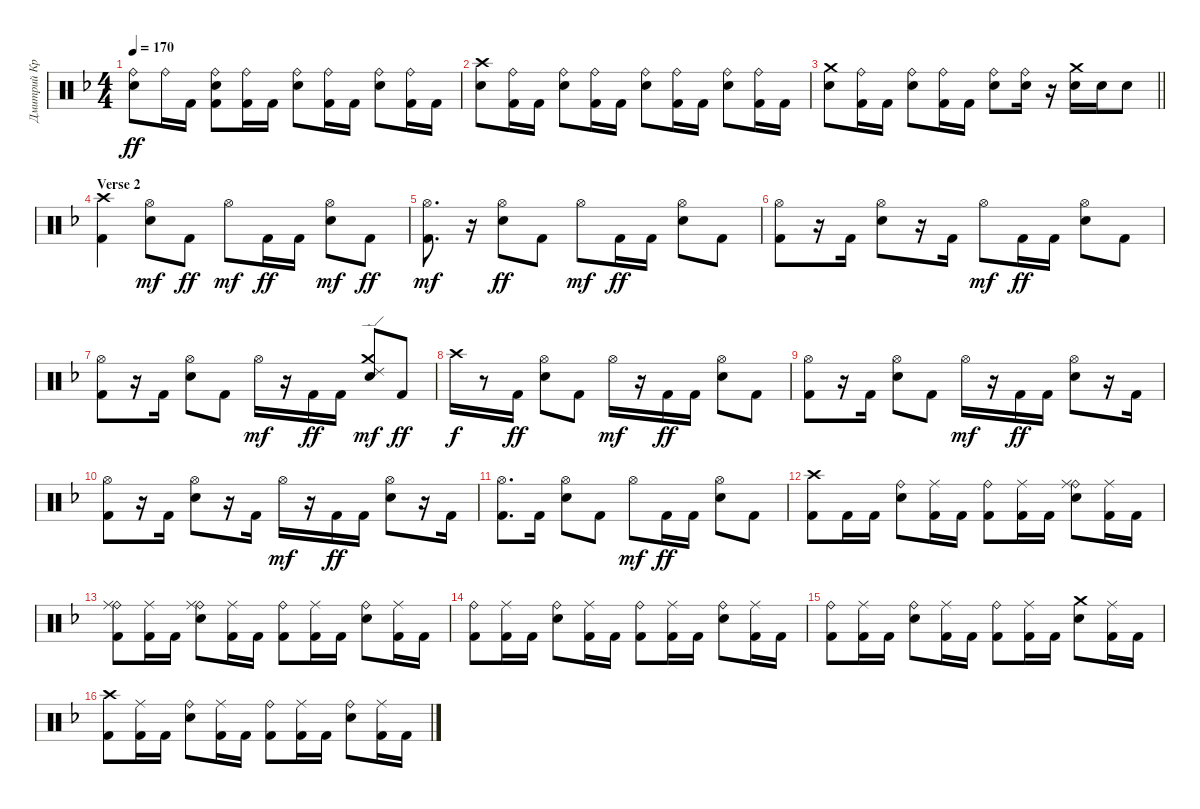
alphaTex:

\track ("Дмитрий Кривенков" "Дмитрий Кр") {instrument percussion}
\staff {score}
\articulation defaults
\ts (4 4)
\tempo 170
\clef neutral
\ks f
("Ride (bell)" "Electric Snare (hit)").8{dy ff} "Ride (bell)".16 "Kick (hit) 2".16 ("Kick (hit) 2" "Ride (bell)" "Electric Snare (hit)").8 ("Ride (bell)" "Kick (hit) 2").16 "Kick (hit) 2".16 ("Ride (bell)" "Electric Snare (hit)").8 ("Ride (bell)" "Kick (hit) 2").16 "Kick (hit) 2".16 ("Ride (bell)" "Electric Snare (hit)").8 ("Ride (bell)" "Kick (hit) 2").16 "Kick (hit) 2".16 |
("Crash high (hit)" "Electric Snare (hit)").8 ("Ride (bell)" "Kick (hit) 2").16 "Kick (hit) 2".16 ("Ride (bell)" "Electric Snare (hit)").8 ("Ride (bell)" "Kick (hit) 2").16 "Kick (hit) 2".16 ("Ride (bell)" "Electric Snare (hit)").8 ("Ride (bell)" "Kick (hit) 2").16 "Kick (hit) 2".16 ("Ride (bell)" "Electric Snare (hit)").8 ("Ride (bell)" "Kick (hit) 2").16 "Kick (hit) 2".16 |
\barLineRight lightlight
("Crash medium (hit)" "Electric Snare (hit)").8 ("Ride (bell)" "Kick (hit) 2").16 "Kick (hit) 2".16 ("Ride (bell)" "Electric Snare (hit)").8 ("Ride (bell)" "Kick (hit) 2").16 "Kick (hit) 2".16 ("Ride (bell)" "Electric Snare (hit)").8 ("Ride (bell)" "Electric Snare (hit)").16 r.16 ("Crash medium (hit)" "Electric Snare (hit)").16 "Electric Snare (hit)".16 "Electric Snare (hit)".8 |
\section ("" "Verse 2")
("Kick (hit) 2" "Crash high (hit)").4 ("Electric Snare (hit)" "Hi-Hat (open)").8{dy mf} "Kick (hit) 2".8{dy ff} "Hi-Hat (open)".8{dy mf} "Kick (hit) 2".16{dy ff} "Kick (hit) 2".16 ("Electric Snare (hit)" "Hi-Hat (open)").8{dy mf} "Kick (hit) 2".8{dy ff} |
("Kick (hit) 2" "Hi-Hat (open)").8{d dy mf} r.16 ("Hi-Hat (open)" "Electric Snare (hit)").8{dy ff} "Kick (hit) 2".8 "Hi-Hat (open)".8{dy mf} "Kick (hit) 2".16{dy ff} "Kick (hit) 2".16 ("Hi-Hat (open)" "Electric Snare (hit)").8 "Kick (hit) 2".8 |
("Hi-Hat (open)" "Kick (hit) 2").8 r.16 "Kick (hit) 2".16 ("Hi-Hat (open)" "Electric Snare (hit)").8 r.16 "Kick (hit) 2".16 "Hi-Hat (open)".8{dy mf} "Kick (hit) 2".16{dy ff} "Kick (hit) 2".16 ("Hi-Hat (open)" "Electric Snare (hit)").8 "Kick (hit) 2".8 |
("Hi-Hat (open)" "Kick (hit) 2").8 r.16 "Kick (hit) 2".16 ("Hi-Hat (open)" "Electric Snare (hit)").8 "Kick (hit) 2".8 "Hi-Hat (open)".16{dy mf} r.16 "Kick (hit) 2".16{dy ff} "Kick (hit) 2".16 ("Electric Snare (hit)" "Ride (edge) 2" "Crash medium (hit)").8{dy mf} "Kick (hit) 2".8{dy ff} |
"Crash high (hit)".16{dy f} r.8 "Kick (hit) 2".16{dy ff} ("Hi-Hat (open)" "Electric Snare (hit)").8 "Kick (hit) 2".8 "Hi-Hat (open)".16{dy mf} r.16 "Kick (hit) 2".16{dy ff} "Kick (hit) 2".16 ("Hi-Hat (open)" "Electric Snare (hit)").8 "Kick (hit) 2".8 |
("Hi-Hat (open)" "Kick (hit) 2").8 r.16 "Kick (hit) 2".16 ("Hi-Hat (open)" "Electric Snare (hit)").8 "Kick (hit) 2".8 "Hi-Hat (open)".16{dy mf} r.16 "Kick (hit) 2".16{dy ff} "Kick (hit) 2".16 ("Hi-Hat (open)" "Electric Snare (hit)").8 r.16 "Kick (hit) 2".16 |
("Hi-Hat (open)" "Kick (hit) 2").8 r.16 "Kick (hit) 2".16 ("Hi-Hat (open)" "Electric Snare (hit)").8 r.16 "Kick (hit) 2".16 "Hi-Hat (open)".16{dy mf} r.16 "Kick (hit) 2".16{dy ff} "Kick (hit) 2".16 ("Hi-Hat (open)" "Electric Snare (hit)").8 r.16 "Kick (hit) 2".16 |
("Hi-Hat (open)" "Kick (hit) 2").8{d} "Kick (hit) 2".16 ("Hi-Hat (open)" "Electric Snare (hit)").8 "Kick (hit) 2".8 "Hi-Hat (open)".8{dy mf} "Kick (hit) 2".16{dy ff} "Kick (hit) 2".16 ("Hi-Hat (open)" "Electric Snare (hit)").8 "Kick (hit) 2".8 |
("Kick (hit) 2" "Crash high (hit)").8 "Kick (hit) 2".16 "Kick (hit) 2".16 ("Electric Snare (hit)" "Ride (bell)").8 ("Kick (hit) 2" "Ride (middle)").16 "Kick (hit) 2".16 ("Kick (hit) 2" "Ride (bell)").8 ("Kick (hit) 2" "Ride (middle)").16 "Kick (hit) 2".16 ("Electric Snare (hit)" "Ride (bell)" "Ride (middle)").8 ("Kick (hit) 2" "Ride (middle)").16 "Kick (hit) 2".16 |
("Ride (bell)" "Ride (middle)" "Kick (hit) 2").8 ("Kick (hit) 2" "Ride (middle)").16 "Kick (hit) 2".16 ("Electric Snare (hit)" "Ride (bell)" "Ride (middle)").8 ("Kick (hit) 2" "Ride (middle)").16 "Kick (hit) 2".16 ("Ride (bell)" "Kick (hit) 2").8 ("Ride (middle)" "Kick (hit) 2").16 "Kick (hit) 2".16 ("Electric Snare (hit)" "Ride (bell)").8 ("Ride (middle)" "Kick (hit) 2").16 "Kick (hit) 2".16 |
("Ride (bell)" "Kick (hit) 2").8 ("Ride (middle)" "Kick (hit) 2").16 "Kick (hit) 2".16 ("Electric Snare (hit)" "Ride (bell)").8 ("Ride (middle)" "Kick (hit) 2").16 "Kick (hit) 2".16 ("Ride (bell)" "Kick (hit) 2").8 ("Ride (middle)" "Kick (hit) 2").16 "Kick (hit) 2".16 ("Electric Snare (hit)" "Ride (bell)").8 ("Ride (middle)" "Kick (hit) 2").16 "Kick (hit) 2".16 |
("Ride (bell)" "Kick (hit) 2").8 ("Ride (middle)" "Kick (hit) 2").16 "Kick (hit) 2".16 ("Ride (bell)" "Electric Snare (hit)").8 ("Ride (middle)" "Kick (hit) 2").16 "Kick (hit) 2".16 ("Ride (bell)" "Kick (hit) 2").8 ("Ride (middle)" "Kick (hit) 2").16 "Kick (hit) 2".16 ("Electric Snare (hit)" "Crash medium (hit)").8 ("Ride (middle)" "Kick (hit) 2").16 "Kick (hit) 2".16 |
("Crash high (hit)" "Kick (hit) 2").8 ("Ride (middle)" "Kick (hit) 2").16 "Kick (hit) 2".16 ("Ride (bell)" "Electric Snare (hit)").8 ("Ride (middle)" "Kick (hit) 2").16 "Kick (hit) 2".16 ("Ride (bell)" "Kick (hit) 2").8 ("Ride (middle)" "Kick (hit) 2").16 "Kick (hit) 2".16 ("Ride (bell)" "Electric Snare (hit)").8 ("Ride (middle)" "Kick (hit) 2").16 "Kick (hit) 2".16
